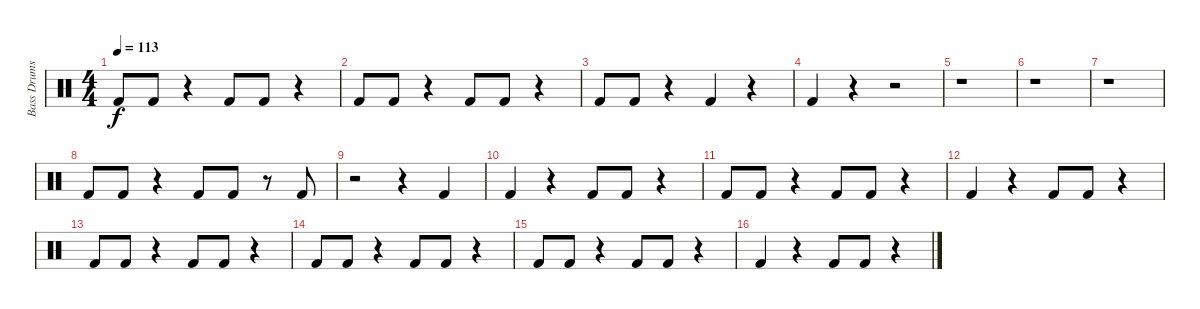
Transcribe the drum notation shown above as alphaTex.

\track ("Bass Drums" "Bass Drums") {instrument percussion}
\staff {score}
\articulation defaults
\ts (4 4)
\tempo 113
\clef neutral
\ks c "Kick (hit) 2".8{dy f} "Kick (hit) 2".8
r.4 "Kick (hit) 2".8 "Kick (hit) 2".8 r.4 |
"Kick (hit) 2".8 "Kick (hit) 2".8 r.4 "Kick (hit) 2".8 "Kick (hit) 2".8 r.4 |
"Kick (hit) 2".8 "Kick (hit) 2".8 r.4 "Kick (hit) 2".4 r.4 |
"Kick (hit) 2".4 r.4 r.2 |
r.1 |
r.1 |
r.1 |
"Kick (hit) 2".8 "Kick (hit) 2".8 r.4 "Kick (hit) 2".8 "Kick (hit) 2".8 r.8 "Kick (hit) 2".8 |
r.2 r.4 "Kick (hit) 2".4 |
"Kick (hit) 2".4 r.4 "Kick (hit) 2".8 "Kick (hit) 2".8 r.4 |
"Kick (hit) 2".8 "Kick (hit) 2".8 r.4 "Kick (hit) 2".8 "Kick (hit) 2".8 r.4 |
"Kick (hit) 2".4 r.4 "Kick (hit) 2".8 "Kick (hit) 2".8 r.4 |
"Kick (hit) 2".8 "Kick (hit) 2".8 r.4 "Kick (hit) 2".8 "Kick (hit) 2".8 r.4 |
"Kick (hit) 2".8 "Kick (hit) 2".8 r.4 "Kick (hit) 2".8 "Kick (hit) 2".8 r.4 |
"Kick (hit) 2".8 "Kick (hit) 2".8 r.4 "Kick (hit) 2".8 "Kick (hit) 2".8 r.4 |
"Kick (hit) 2".4 r.4 "Kick (hit) 2".8 "Kick (hit) 2".8 r.4
